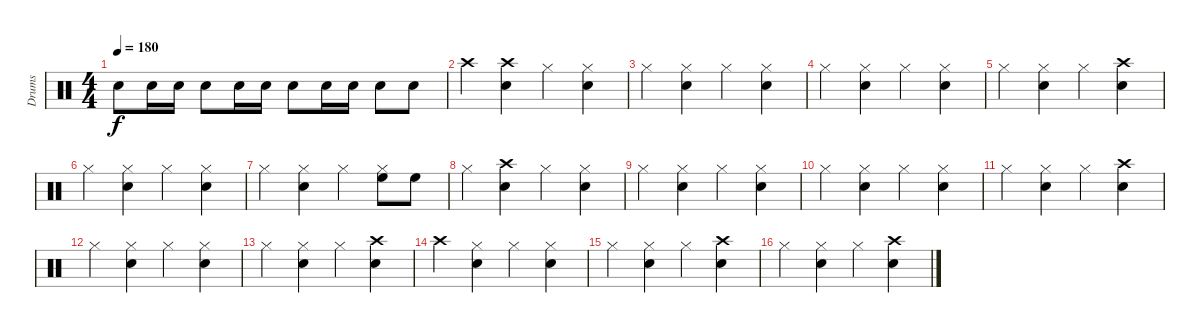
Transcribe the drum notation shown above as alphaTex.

\track ("Drums" "Drums") {instrument percussion}
\staff {score}
\articulation defaults
\ts (4 4)
\tempo 180
\clef neutral
\ks c "Snare (hit) 2".8{dy f} "Snare (hit) 2".16 "Snare (hit) 2".16 "Snare (hit) 2".8 "Snare (hit) 2".16 "Snare (hit) 2".16 "Snare (hit) 2".8 "Snare (hit) 2".16 "Snare (hit) 2".16 "Snare (hit) 2".8 "Snare (hit) 2".8
|
"Crash high (hit)".4 ("Crash high (hit)" "Snare (hit) 2").4 "Hi-Hat (closed)".4 ("Hi-Hat (closed)" "Snare (hit) 2").4 |
"Hi-Hat (closed)".4 ("Hi-Hat (closed)" "Snare (hit) 2").4 "Hi-Hat (closed)".4 ("Hi-Hat (closed)" "Snare (hit) 2").4 |
"Hi-Hat (closed)".4 ("Hi-Hat (closed)" "Snare (hit) 2").4 "Hi-Hat (closed)".4 ("Hi-Hat (closed)" "Snare (hit) 2").4 |
"Hi-Hat (closed)".4 ("Hi-Hat (closed)" "Snare (hit) 2").4 "Hi-Hat (closed)".4 ("Crash high (hit)" "Snare (hit) 2").4 |
"Hi-Hat (closed)".4 ("Hi-Hat (closed)" "Snare (hit) 2").4 "Hi-Hat (closed)".4 ("Hi-Hat (closed)" "Snare (hit) 2").4 |
"Hi-Hat (closed)".4 ("Hi-Hat (closed)" "Snare (hit) 2").4 "Hi-Hat (closed)".4 ("Hi-Hat (closed)" "High Floor Tom (hit)").8 "High Floor Tom (hit)".8 |
"Hi-Hat (closed)".4 ("Crash high (hit)" "Snare (hit) 2").4 "Hi-Hat (closed)".4 ("Hi-Hat (closed)" "Snare (hit) 2").4 |
"Hi-Hat (closed)".4 ("Hi-Hat (closed)" "Snare (hit) 2").4 "Hi-Hat (closed)".4 ("Hi-Hat (closed)" "Snare (hit) 2").4 |
"Hi-Hat (closed)".4 ("Hi-Hat (closed)" "Snare (hit) 2").4 "Hi-Hat (closed)".4 ("Hi-Hat (closed)" "Snare (hit) 2").4 |
"Hi-Hat (closed)".4 ("Hi-Hat (closed)" "Snare (hit) 2").4 "Hi-Hat (closed)".4 ("Crash high (hit)" "Snare (hit) 2").4 |
"Hi-Hat (closed)".4 ("Hi-Hat (closed)" "Snare (hit) 2").4 "Hi-Hat (closed)".4 ("Hi-Hat (closed)" "Snare (hit) 2").4 |
"Hi-Hat (closed)".4 ("Hi-Hat (closed)" "Snare (hit) 2").4 "Hi-Hat (closed)".4 ("Crash high (hit)" "Snare (hit) 2").4 |
"Crash high (hit)".4 ("Hi-Hat (closed)" "Snare (hit) 2").4 "Hi-Hat (closed)".4 ("Hi-Hat (closed)" "Snare (hit) 2").4 |
"Hi-Hat (closed)".4 ("Hi-Hat (closed)" "Snare (hit) 2").4 "Hi-Hat (closed)".4 ("Crash high (hit)" "Snare (hit) 2").4 |
"Hi-Hat (closed)".4 ("Hi-Hat (closed)" "Snare (hit) 2").4 "Hi-Hat (closed)".4 ("Crash high (hit)" "Snare (hit) 2").4
